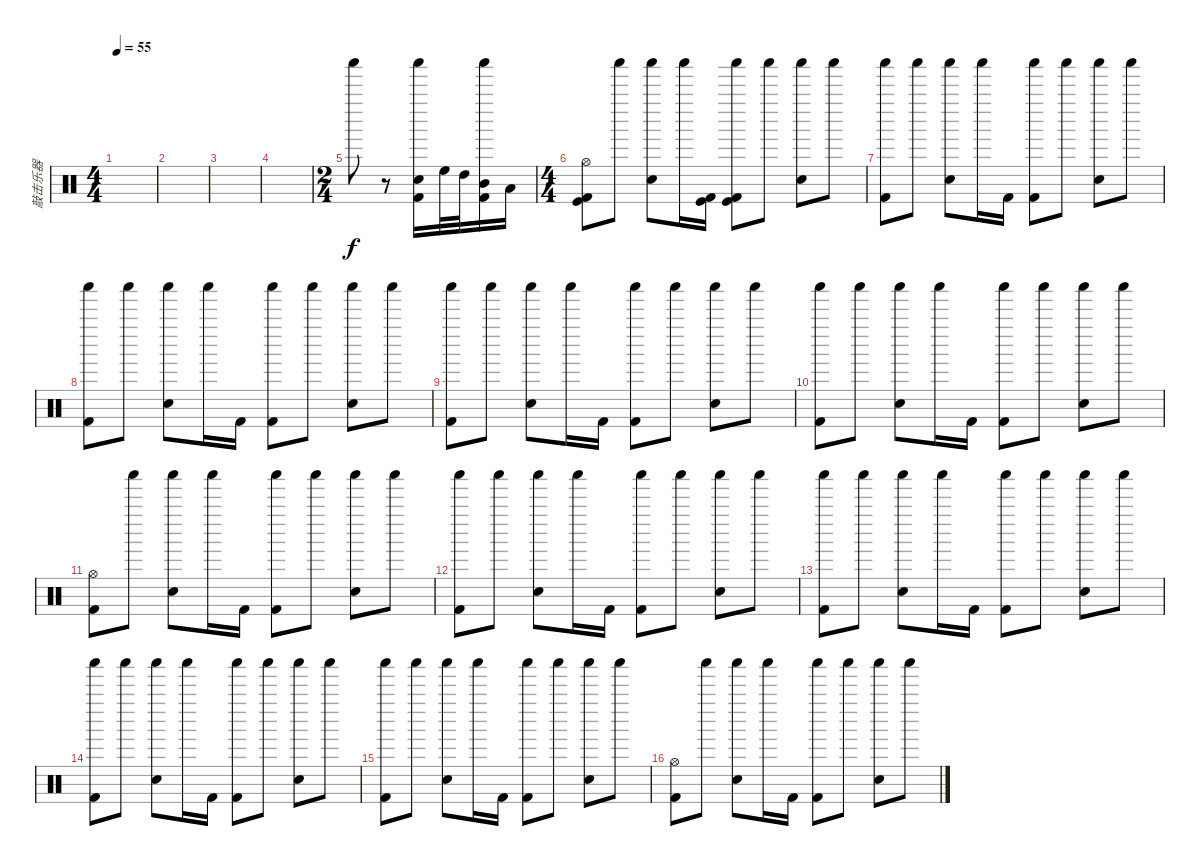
\track ("敲击乐器" "敲击乐器") {instrument percussion}
\staff {score}
\articulation defaults
\ts (4 4)
\tempo 55
\clef neutral
\ks c
|
|
|
|
\ts (2 4)
"Shaker (hit)".8 r.8 ("Shaker (hit)" "Snare (hit) 2" "Kick (hit) 2").16 "High Floor Tom (hit)".32 "High Tom (hit)".32 ("Shaker (hit)" "Mid Tom (hit)" "Kick (hit) 2").16 "Low Tom (hit)".16 |
\ts (4 4)
("Hi-Hat (open)" "Kick (hit) 2" "Kick (hit)").8 "Shaker (hit)".8 ("Shaker (hit)" "Snare (hit) 2").8 "Shaker (hit)".16 ("Kick (hit) 2" "Kick (hit)").16 ("Shaker (hit)" "Kick (hit) 2" "Kick (hit)").8 "Shaker (hit)".8 ("Shaker (hit)" "Snare (hit) 2").8 "Shaker (hit)".8 |
("Shaker (hit)" "Kick (hit) 2").8 "Shaker (hit)".8 ("Shaker (hit)" "Snare (hit) 2").8 "Shaker (hit)".16 "Kick (hit) 2".16 ("Shaker (hit)" "Kick (hit) 2").8 "Shaker (hit)".8 ("Shaker (hit)" "Snare (hit) 2").8 "Shaker (hit)".8 |
("Shaker (hit)" "Kick (hit) 2").8 "Shaker (hit)".8 ("Shaker (hit)" "Snare (hit) 2").8 "Shaker (hit)".16 "Kick (hit) 2".16 ("Shaker (hit)" "Kick (hit) 2").8 "Shaker (hit)".8 ("Shaker (hit)" "Snare (hit) 2").8 "Shaker (hit)".8 |
("Shaker (hit)" "Kick (hit) 2").8 "Shaker (hit)".8 ("Shaker (hit)" "Snare (hit) 2").8 "Shaker (hit)".16 "Kick (hit) 2".16 ("Shaker (hit)" "Kick (hit) 2").8 "Shaker (hit)".8 ("Shaker (hit)" "Snare (hit) 2").8 "Shaker (hit)".8 |
("Shaker (hit)" "Kick (hit) 2").8 "Shaker (hit)".8 ("Shaker (hit)" "Snare (hit) 2").8 "Shaker (hit)".16 "Kick (hit) 2".16 ("Shaker (hit)" "Kick (hit) 2").8 "Shaker (hit)".8 ("Shaker (hit)" "Snare (hit) 2").8 "Shaker (hit)".8 |
("Hi-Hat (open)" "Kick (hit) 2").8 "Shaker (hit)".8 ("Shaker (hit)" "Snare (hit) 2").8 "Shaker (hit)".16 "Kick (hit) 2".16 ("Shaker (hit)" "Kick (hit) 2").8 "Shaker (hit)".8 ("Shaker (hit)" "Snare (hit) 2").8 "Shaker (hit)".8 |
("Shaker (hit)" "Kick (hit) 2").8 "Shaker (hit)".8 ("Shaker (hit)" "Snare (hit) 2").8 "Shaker (hit)".16 "Kick (hit) 2".16 ("Shaker (hit)" "Kick (hit) 2").8 "Shaker (hit)".8 ("Shaker (hit)" "Snare (hit) 2").8 "Shaker (hit)".8 |
("Shaker (hit)" "Kick (hit) 2").8 "Shaker (hit)".8 ("Shaker (hit)" "Snare (hit) 2").8 "Shaker (hit)".16 "Kick (hit) 2".16 ("Shaker (hit)" "Kick (hit) 2").8 "Shaker (hit)".8 ("Shaker (hit)" "Snare (hit) 2").8 "Shaker (hit)".8 |
("Shaker (hit)" "Kick (hit) 2").8 "Shaker (hit)".8 ("Shaker (hit)" "Snare (hit) 2").8 "Shaker (hit)".16 "Kick (hit) 2".16 ("Shaker (hit)" "Kick (hit) 2").8 "Shaker (hit)".8 ("Shaker (hit)" "Snare (hit) 2").8 "Shaker (hit)".8 |
("Shaker (hit)" "Kick (hit) 2").8 "Shaker (hit)".8 ("Shaker (hit)" "Snare (hit) 2").8 "Shaker (hit)".16 "Kick (hit) 2".16 ("Shaker (hit)" "Kick (hit) 2").8 "Shaker (hit)".8 ("Shaker (hit)" "Snare (hit) 2").8 "Shaker (hit)".8 |
("Hi-Hat (open)" "Kick (hit) 2").8 "Shaker (hit)".8 ("Shaker (hit)" "Snare (hit) 2").8 "Shaker (hit)".16 "Kick (hit) 2".16 ("Shaker (hit)" "Kick (hit) 2").8 "Shaker (hit)".8 ("Shaker (hit)" "Snare (hit) 2").8 "Shaker (hit)".8
